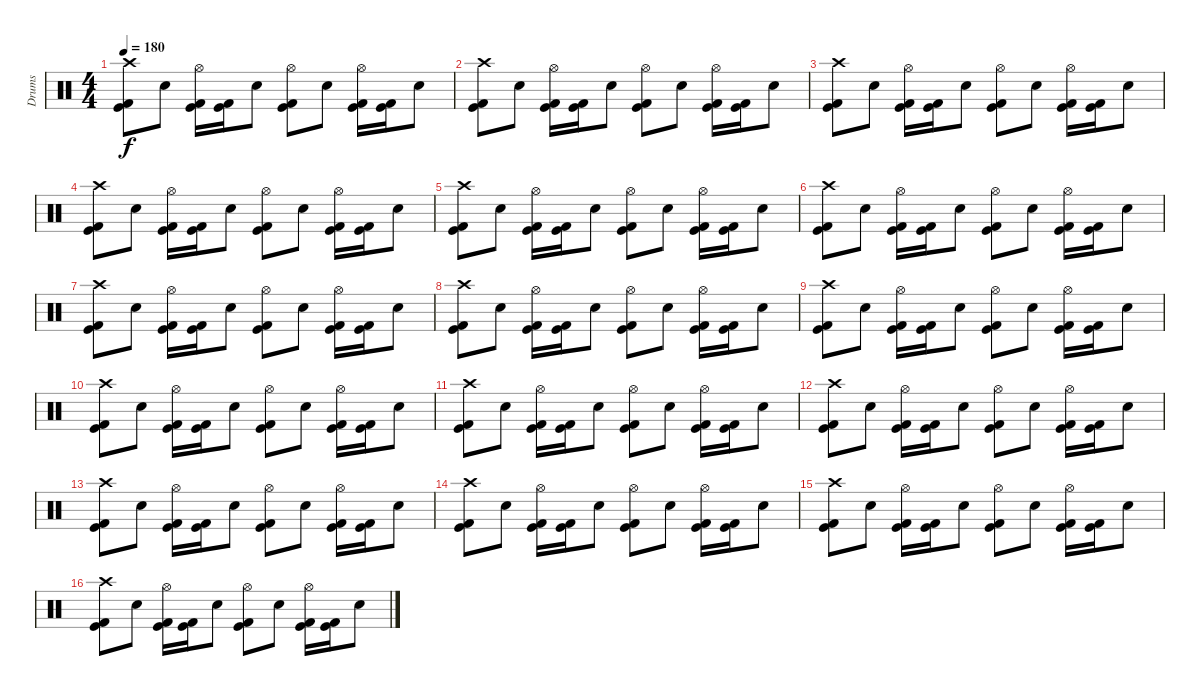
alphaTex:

\track ("Drums" "Drums") {instrument percussion}
\staff {score}
\articulation defaults
\ts (4 4)
\tempo 180
\clef neutral
\ks c
("Crash high (hit)" "Kick (hit)" "Kick (hit) 2").8{dy f} "Electric Snare (hit)".8 ("Hi-Hat (open)" "Kick (hit)" "Kick (hit) 2").16 ("Kick (hit)" "Kick (hit) 2").16 "Electric Snare (hit)".8 ("Hi-Hat (open)" "Kick (hit)" "Kick (hit) 2").8 "Electric Snare (hit)".8 ("Hi-Hat (open)" "Kick (hit)" "Kick (hit) 2").16 ("Kick (hit)" "Kick (hit) 2").16 "Electric Snare (hit)".8 |
("Crash high (hit)" "Kick (hit)" "Kick (hit) 2").8 "Electric Snare (hit)".8 ("Hi-Hat (open)" "Kick (hit)" "Kick (hit) 2").16 ("Kick (hit)" "Kick (hit) 2").16 "Electric Snare (hit)".8 ("Hi-Hat (open)" "Kick (hit)" "Kick (hit) 2").8 "Electric Snare (hit)".8 ("Hi-Hat (open)" "Kick (hit)" "Kick (hit) 2").16 ("Kick (hit)" "Kick (hit) 2").16 "Electric Snare (hit)".8 |
("Crash high (hit)" "Kick (hit)" "Kick (hit) 2").8 "Electric Snare (hit)".8 ("Hi-Hat (open)" "Kick (hit)" "Kick (hit) 2").16 ("Kick (hit)" "Kick (hit) 2").16 "Electric Snare (hit)".8 ("Hi-Hat (open)" "Kick (hit)" "Kick (hit) 2").8 "Electric Snare (hit)".8 ("Hi-Hat (open)" "Kick (hit)" "Kick (hit) 2").16 ("Kick (hit)" "Kick (hit) 2").16 "Electric Snare (hit)".8 |
("Crash high (hit)" "Kick (hit)" "Kick (hit) 2").8 "Electric Snare (hit)".8 ("Hi-Hat (open)" "Kick (hit)" "Kick (hit) 2").16 ("Kick (hit)" "Kick (hit) 2").16 "Electric Snare (hit)".8 ("Hi-Hat (open)" "Kick (hit)" "Kick (hit) 2").8 "Electric Snare (hit)".8 ("Hi-Hat (open)" "Kick (hit)" "Kick (hit) 2").16 ("Kick (hit)" "Kick (hit) 2").16 "Electric Snare (hit)".8 |
("Crash high (hit)" "Kick (hit)" "Kick (hit) 2").8 "Electric Snare (hit)".8 ("Hi-Hat (open)" "Kick (hit)" "Kick (hit) 2").16 ("Kick (hit)" "Kick (hit) 2").16 "Electric Snare (hit)".8 ("Hi-Hat (open)" "Kick (hit)" "Kick (hit) 2").8 "Electric Snare (hit)".8 ("Hi-Hat (open)" "Kick (hit)" "Kick (hit) 2").16 ("Kick (hit)" "Kick (hit) 2").16 "Electric Snare (hit)".8 |
("Crash high (hit)" "Kick (hit)" "Kick (hit) 2").8 "Electric Snare (hit)".8 ("Hi-Hat (open)" "Kick (hit)" "Kick (hit) 2").16 ("Kick (hit)" "Kick (hit) 2").16 "Electric Snare (hit)".8 ("Hi-Hat (open)" "Kick (hit)" "Kick (hit) 2").8 "Electric Snare (hit)".8 ("Hi-Hat (open)" "Kick (hit)" "Kick (hit) 2").16 ("Kick (hit)" "Kick (hit) 2").16 "Electric Snare (hit)".8 |
("Crash high (hit)" "Kick (hit)" "Kick (hit) 2").8 "Electric Snare (hit)".8 ("Hi-Hat (open)" "Kick (hit)" "Kick (hit) 2").16 ("Kick (hit)" "Kick (hit) 2").16 "Electric Snare (hit)".8 ("Hi-Hat (open)" "Kick (hit)" "Kick (hit) 2").8 "Electric Snare (hit)".8 ("Hi-Hat (open)" "Kick (hit)" "Kick (hit) 2").16 ("Kick (hit)" "Kick (hit) 2").16 "Electric Snare (hit)".8 |
("Crash high (hit)" "Kick (hit)" "Kick (hit) 2").8 "Electric Snare (hit)".8 ("Hi-Hat (open)" "Kick (hit)" "Kick (hit) 2").16 ("Kick (hit)" "Kick (hit) 2").16 "Electric Snare (hit)".8 ("Hi-Hat (open)" "Kick (hit)" "Kick (hit) 2").8 "Electric Snare (hit)".8 ("Hi-Hat (open)" "Kick (hit)" "Kick (hit) 2").16 ("Kick (hit)" "Kick (hit) 2").16 "Electric Snare (hit)".8 |
("Crash high (hit)" "Kick (hit)" "Kick (hit) 2").8 "Electric Snare (hit)".8 ("Hi-Hat (open)" "Kick (hit)" "Kick (hit) 2").16 ("Kick (hit)" "Kick (hit) 2").16 "Electric Snare (hit)".8 ("Hi-Hat (open)" "Kick (hit)" "Kick (hit) 2").8 "Electric Snare (hit)".8 ("Hi-Hat (open)" "Kick (hit)" "Kick (hit) 2").16 ("Kick (hit)" "Kick (hit) 2").16 "Electric Snare (hit)".8 |
("Crash high (hit)" "Kick (hit)" "Kick (hit) 2").8 "Electric Snare (hit)".8 ("Hi-Hat (open)" "Kick (hit)" "Kick (hit) 2").16 ("Kick (hit)" "Kick (hit) 2").16 "Electric Snare (hit)".8 ("Hi-Hat (open)" "Kick (hit)" "Kick (hit) 2").8 "Electric Snare (hit)".8 ("Hi-Hat (open)" "Kick (hit)" "Kick (hit) 2").16 ("Kick (hit)" "Kick (hit) 2").16 "Electric Snare (hit)".8 |
("Crash high (hit)" "Kick (hit)" "Kick (hit) 2").8 "Electric Snare (hit)".8 ("Hi-Hat (open)" "Kick (hit)" "Kick (hit) 2").16 ("Kick (hit)" "Kick (hit) 2").16 "Electric Snare (hit)".8 ("Hi-Hat (open)" "Kick (hit)" "Kick (hit) 2").8 "Electric Snare (hit)".8 ("Hi-Hat (open)" "Kick (hit)" "Kick (hit) 2").16 ("Kick (hit)" "Kick (hit) 2").16 "Electric Snare (hit)".8 |
("Crash high (hit)" "Kick (hit)" "Kick (hit) 2").8 "Electric Snare (hit)".8 ("Hi-Hat (open)" "Kick (hit)" "Kick (hit) 2").16 ("Kick (hit)" "Kick (hit) 2").16 "Electric Snare (hit)".8 ("Hi-Hat (open)" "Kick (hit)" "Kick (hit) 2").8 "Electric Snare (hit)".8 ("Hi-Hat (open)" "Kick (hit)" "Kick (hit) 2").16 ("Kick (hit)" "Kick (hit) 2").16 "Electric Snare (hit)".8 |
("Crash high (hit)" "Kick (hit)" "Kick (hit) 2").8 "Electric Snare (hit)".8 ("Hi-Hat (open)" "Kick (hit)" "Kick (hit) 2").16 ("Kick (hit)" "Kick (hit) 2").16 "Electric Snare (hit)".8 ("Hi-Hat (open)" "Kick (hit)" "Kick (hit) 2").8 "Electric Snare (hit)".8 ("Hi-Hat (open)" "Kick (hit)" "Kick (hit) 2").16 ("Kick (hit)" "Kick (hit) 2").16 "Electric Snare (hit)".8 |
("Crash high (hit)" "Kick (hit)" "Kick (hit) 2").8 "Electric Snare (hit)".8 ("Hi-Hat (open)" "Kick (hit)" "Kick (hit) 2").16 ("Kick (hit)" "Kick (hit) 2").16 "Electric Snare (hit)".8 ("Hi-Hat (open)" "Kick (hit)" "Kick (hit) 2").8 "Electric Snare (hit)".8 ("Hi-Hat (open)" "Kick (hit)" "Kick (hit) 2").16 ("Kick (hit)" "Kick (hit) 2").16 "Electric Snare (hit)".8 |
("Crash high (hit)" "Kick (hit)" "Kick (hit) 2").8 "Electric Snare (hit)".8 ("Hi-Hat (open)" "Kick (hit)" "Kick (hit) 2").16 ("Kick (hit)" "Kick (hit) 2").16 "Electric Snare (hit)".8 ("Hi-Hat (open)" "Kick (hit)" "Kick (hit) 2").8 "Electric Snare (hit)".8 ("Hi-Hat (open)" "Kick (hit)" "Kick (hit) 2").16 ("Kick (hit)" "Kick (hit) 2").16 "Electric Snare (hit)".8 |
("Crash high (hit)" "Kick (hit)" "Kick (hit) 2").8 "Electric Snare (hit)".8 ("Hi-Hat (open)" "Kick (hit)" "Kick (hit) 2").16 ("Kick (hit)" "Kick (hit) 2").16 "Electric Snare (hit)".8 ("Hi-Hat (open)" "Kick (hit)" "Kick (hit) 2").8 "Electric Snare (hit)".8 ("Hi-Hat (open)" "Kick (hit)" "Kick (hit) 2").16 ("Kick (hit)" "Kick (hit) 2").16 "Electric Snare (hit)".8
